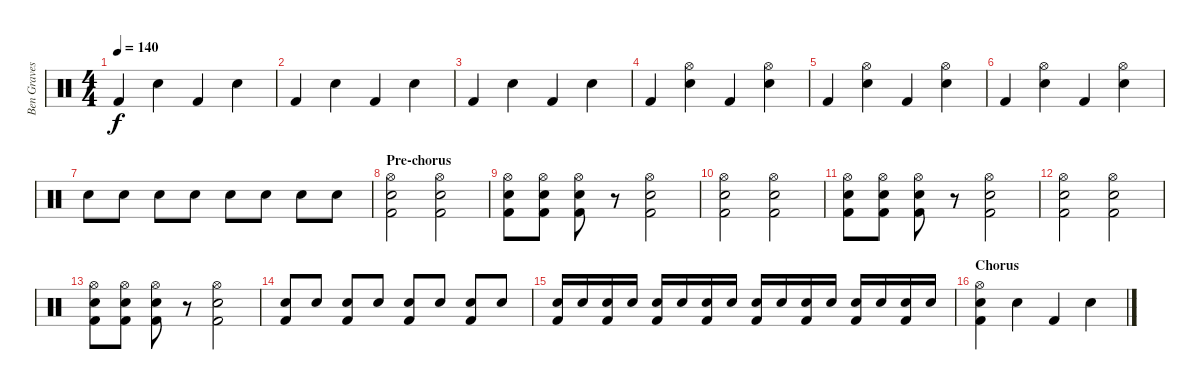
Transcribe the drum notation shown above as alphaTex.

\track ("Ben Graves" "Ben Graves") {instrument percussion}
\staff {score}
\articulation defaults
\ts (4 4)
\tempo 140
\clef neutral
\ks c "Kick (hit) 2".4{dy f} "Electric Snare (hit)".4 "Kick (hit) 2".4 "Electric Snare (hit)".4
|
"Kick (hit) 2".4 "Electric Snare (hit)".4 "Kick (hit) 2".4 "Electric Snare (hit)".4 |
"Kick (hit) 2".4 "Electric Snare (hit)".4 "Kick (hit) 2".4 "Electric Snare (hit)".4 |
"Kick (hit) 2".4 ("Electric Snare (hit)" "Hi-Hat (open)").4 "Kick (hit) 2".4 ("Electric Snare (hit)" "Hi-Hat (open)").4 |
"Kick (hit) 2".4 ("Electric Snare (hit)" "Hi-Hat (open)").4 "Kick (hit) 2".4 ("Electric Snare (hit)" "Hi-Hat (open)").4 |
"Kick (hit) 2".4 ("Electric Snare (hit)" "Hi-Hat (open)").4 "Kick (hit) 2".4 ("Electric Snare (hit)" "Hi-Hat (open)").4 |
"Electric Snare (hit)".8 "Electric Snare (hit)".8 "Electric Snare (hit)".8 "Electric Snare (hit)".8 "Electric Snare (hit)".8 "Electric Snare (hit)".8 "Electric Snare (hit)".8 "Electric Snare (hit)".8 |
\section ("" "Pre-chorus")
("Kick (hit) 2" "Electric Snare (hit)" "Hi-Hat (open)").2 ("Kick (hit) 2" "Electric Snare (hit)" "Hi-Hat (open)").2 |
("Kick (hit) 2" "Electric Snare (hit)" "Hi-Hat (open)").8 ("Kick (hit) 2" "Electric Snare (hit)" "Hi-Hat (open)").8 ("Kick (hit) 2" "Electric Snare (hit)" "Hi-Hat (open)").8 r.8 ("Kick (hit) 2" "Electric Snare (hit)" "Hi-Hat (open)").2 |
("Kick (hit) 2" "Electric Snare (hit)" "Hi-Hat (open)").2 ("Kick (hit) 2" "Electric Snare (hit)" "Hi-Hat (open)").2 |
("Kick (hit) 2" "Electric Snare (hit)" "Hi-Hat (open)").8 ("Kick (hit) 2" "Electric Snare (hit)" "Hi-Hat (open)").8 ("Kick (hit) 2" "Electric Snare (hit)" "Hi-Hat (open)").8 r.8 ("Kick (hit) 2" "Electric Snare (hit)" "Hi-Hat (open)").2 |
("Kick (hit) 2" "Electric Snare (hit)" "Hi-Hat (open)").2 ("Kick (hit) 2" "Electric Snare (hit)" "Hi-Hat (open)").2 |
("Kick (hit) 2" "Electric Snare (hit)" "Hi-Hat (open)").8 ("Kick (hit) 2" "Electric Snare (hit)" "Hi-Hat (open)").8 ("Kick (hit) 2" "Electric Snare (hit)" "Hi-Hat (open)").8 r.8 ("Kick (hit) 2" "Electric Snare (hit)" "Hi-Hat (open)").2 |
("Kick (hit) 2" "Electric Snare (hit)").8 "Electric Snare (hit)".8 ("Kick (hit) 2" "Electric Snare (hit)").8 "Electric Snare (hit)".8 ("Kick (hit) 2" "Electric Snare (hit)").8 "Electric Snare (hit)".8 ("Kick (hit) 2" "Electric Snare (hit)").8 "Electric Snare (hit)".8 |
("Kick (hit) 2" "Electric Snare (hit)").16 "Electric Snare (hit)".16 ("Kick (hit) 2" "Electric Snare (hit)").16 "Electric Snare (hit)".16 ("Kick (hit) 2" "Electric Snare (hit)").16 "Electric Snare (hit)".16 ("Kick (hit) 2" "Electric Snare (hit)").16 "Electric Snare (hit)".16 ("Kick (hit) 2" "Electric Snare (hit)").16 "Electric Snare (hit)".16 ("Kick (hit) 2" "Electric Snare (hit)").16 "Electric Snare (hit)".16 ("Kick (hit) 2" "Electric Snare (hit)").16 "Electric Snare (hit)".16 ("Kick (hit) 2" "Electric Snare (hit)").16 "Electric Snare (hit)".16 |
\section ("" "Chorus")
("Kick (hit) 2" "Electric Snare (hit)" "Hi-Hat (open)").4 "Electric Snare (hit)".4 "Kick (hit) 2".4 "Electric Snare (hit)".4
